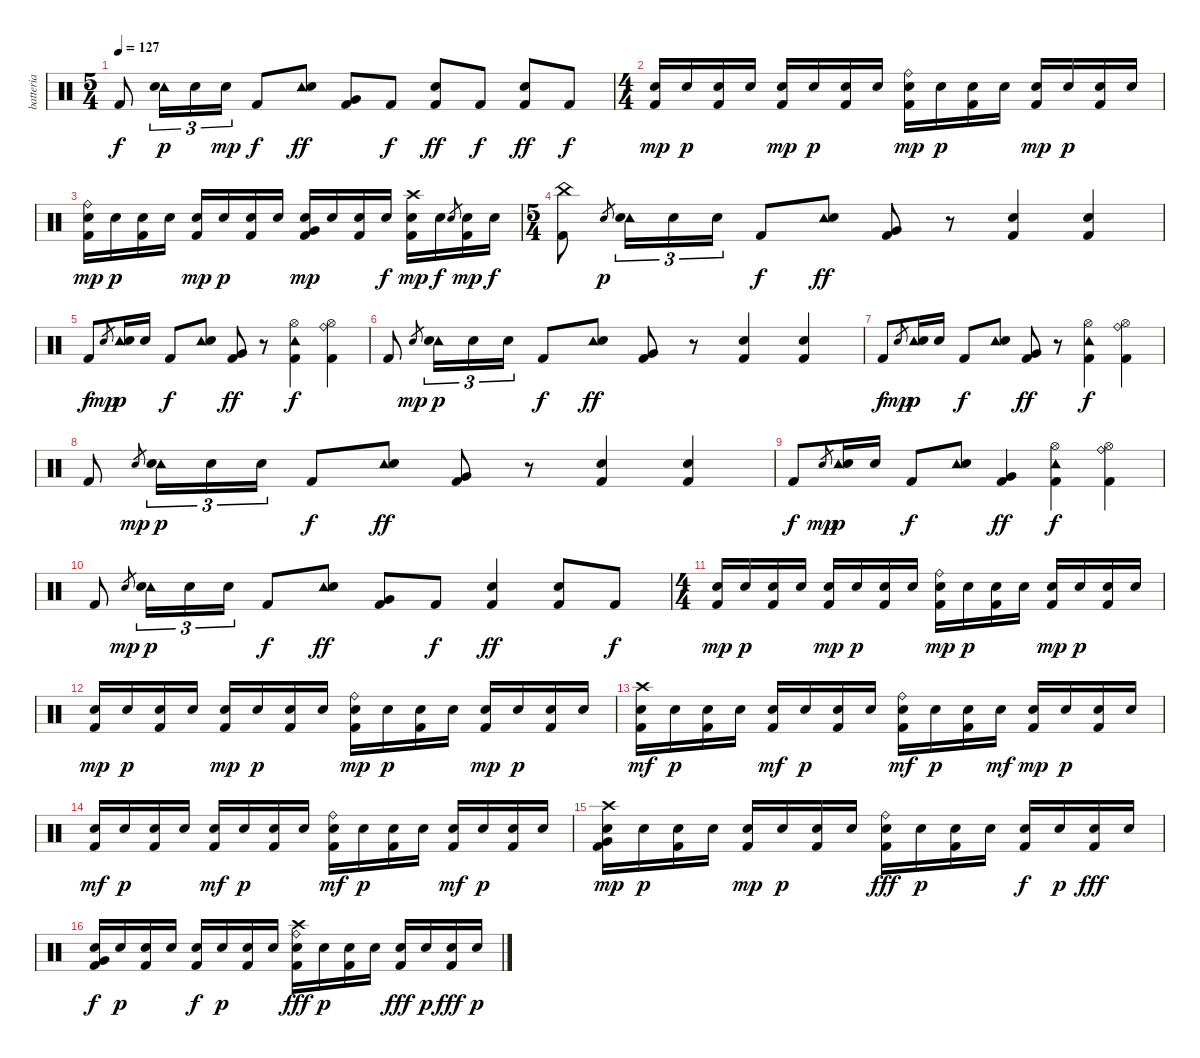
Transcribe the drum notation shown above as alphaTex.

\track ("batteria" "batteria") {instrument percussion}
\staff {score}
\articulation defaults
\ts (5 4)
\tempo 127
\clef neutral
\ks c "Kick (hit) 2".8{dy f}
("Tambourine (hit)" "Electric Snare (hit)").16{tu (3 2) dy p} "Electric Snare (hit)".16{tu (3 2)} "Electric Snare (hit)".16{tu (3 2) dy mp} "Kick (hit) 2".8{dy f} ("Tambourine (hit)" "Electric Snare (hit)").8{dy ff} ("Very Low Tom (hit)" "Kick (hit) 2").8 "Kick (hit) 2".8{dy f} ("Electric Snare (hit)" "Kick (hit) 2").8{dy ff} "Kick (hit) 2".8{dy f} ("Electric Snare (hit)" "Kick (hit) 2").8{dy ff} "Kick (hit) 2".8{dy f} |
\ts (4 4)
("Electric Snare (hit)" "Kick (hit) 2").16{dy mp} "Electric Snare (hit)".16{dy p} ("Electric Snare (hit)" "Kick (hit) 2").16 "Electric Snare (hit)".16 ("Electric Snare (hit)" "Kick (hit) 2").16{dy mp} "Electric Snare (hit)".16{dy p} ("Electric Snare (hit)" "Kick (hit) 2").16 "Electric Snare (hit)".16 ("Ride (bell)" "Electric Snare (hit)" "Kick (hit) 2").16{dy mp} "Electric Snare (hit)".16{dy p} ("Electric Snare (hit)" "Kick (hit) 2").16 "Electric Snare (hit)".16 ("Electric Snare (hit)" "Kick (hit) 2").16{dy mp} "Electric Snare (hit)".16{dy p} ("Electric Snare (hit)" "Kick (hit) 2").16 "Electric Snare (hit)".16 |
("Ride (bell)" "Electric Snare (hit)" "Kick (hit) 2").16{dy mp} "Electric Snare (hit)".16{dy p} ("Electric Snare (hit)" "Kick (hit) 2").16 "Electric Snare (hit)".16 ("Electric Snare (hit)" "Kick (hit) 2").16{dy mp} "Electric Snare (hit)".16{dy p} ("Electric Snare (hit)" "Kick (hit) 2").16 "Electric Snare (hit)".16 ("Very Low Tom (hit)" "Electric Snare (hit)" "Kick (hit) 2").16{dy mp} "Electric Snare (hit)".16 ("Electric Snare (hit)" "Kick (hit) 2").16 "Electric Snare (hit)".16{dy f} ("Crash high (hit)" "Electric Snare (hit)" "Kick (hit) 2").16{dy mp} "Electric Snare (hit)".16{dy f} "Electric Snare (hit)".8{gr} ("Electric Snare (hit)" "Kick (hit) 2").16{dy mp} "Electric Snare (hit)".16{dy f} |
\ts (5 4)
("China (hit)" "Kick (hit) 2").8 "Electric Snare (hit)".8{gr dy p} ("Tambourine (hit)" "Electric Snare (hit)").16{tu (3 2)} "Electric Snare (hit)".16{tu (3 2)} "Electric Snare (hit)".16{tu (3 2)} "Kick (hit) 2".8{dy f} ("Tambourine (hit)" "Electric Snare (hit)").8{dy ff} ("Very Low Tom (hit)" "Kick (hit) 2").8 r.8 ("Electric Snare (hit)" "Kick (hit) 2").4 ("Electric Snare (hit)" "Kick (hit) 2").4 |
"Kick (hit) 2".8{dy f} "Electric Snare (hit)".8{gr dy mp} ("Tambourine (hit)" "Electric Snare (hit)").16{dy p} "Electric Snare (hit)".16 "Kick (hit) 2".8{dy f} ("Tambourine (hit)" "Electric Snare (hit)").8 ("Very Low Tom (hit)" "Kick (hit) 2").8{dy ff} r.8 ("Hi-Hat (open)" "Tambourine (hit)" "Kick (hit) 2").4{dy f} ("Ride (bell)" "Hi-Hat (open)" "Kick (hit) 2").4 |
"Kick (hit) 2".8 "Electric Snare (hit)".8{gr dy mp} ("Tambourine (hit)" "Electric Snare (hit)").16{tu (3 2) dy p} "Electric Snare (hit)".16{tu (3 2)} "Electric Snare (hit)".16{tu (3 2)} "Kick (hit) 2".8{dy f} ("Tambourine (hit)" "Electric Snare (hit)").8{dy ff} ("Very Low Tom (hit)" "Kick (hit) 2").8 r.8 ("Electric Snare (hit)" "Kick (hit) 2").4 ("Electric Snare (hit)" "Kick (hit) 2").4 |
"Kick (hit) 2".8{dy f} "Electric Snare (hit)".8{gr dy mp} ("Tambourine (hit)" "Electric Snare (hit)").16{dy p} "Electric Snare (hit)".16 "Kick (hit) 2".8{dy f} ("Tambourine (hit)" "Electric Snare (hit)").8 ("Very Low Tom (hit)" "Kick (hit) 2").8{dy ff} r.8 ("Hi-Hat (open)" "Tambourine (hit)" "Kick (hit) 2").4{dy f} ("Ride (bell)" "Hi-Hat (open)" "Kick (hit) 2").4 |
"Kick (hit) 2".8 "Electric Snare (hit)".8{gr dy mp} ("Tambourine (hit)" "Electric Snare (hit)").16{tu (3 2) dy p} "Electric Snare (hit)".16{tu (3 2)} "Electric Snare (hit)".16{tu (3 2)} "Kick (hit) 2".8{dy f} ("Tambourine (hit)" "Electric Snare (hit)").8{dy ff} ("Very Low Tom (hit)" "Kick (hit) 2").8 r.8 ("Electric Snare (hit)" "Kick (hit) 2").4 ("Electric Snare (hit)" "Kick (hit) 2").4 |
"Kick (hit) 2".8{dy f} "Electric Snare (hit)".8{gr dy mp} ("Tambourine (hit)" "Electric Snare (hit)").16{dy p} "Electric Snare (hit)".16 "Kick (hit) 2".8{dy f} ("Tambourine (hit)" "Electric Snare (hit)").8 ("Very Low Tom (hit)" "Kick (hit) 2").4{dy ff} ("Hi-Hat (open)" "Tambourine (hit)" "Kick (hit) 2").4{dy f} ("Ride (bell)" "Hi-Hat (open)" "Kick (hit) 2").4 |
"Kick (hit) 2".8 "Electric Snare (hit)".8{gr dy mp} ("Tambourine (hit)" "Electric Snare (hit)").16{tu (3 2) dy p} "Electric Snare (hit)".16{tu (3 2)} "Electric Snare (hit)".16{tu (3 2)} "Kick (hit) 2".8{dy f} ("Tambourine (hit)" "Electric Snare (hit)").8{dy ff} ("Very Low Tom (hit)" "Kick (hit) 2").8 "Kick (hit) 2".8{dy f} ("Electric Snare (hit)" "Kick (hit) 2").4{dy ff} ("Electric Snare (hit)" "Kick (hit) 2").8 "Kick (hit) 2".8{dy f} |
\ts (4 4)
("Electric Snare (hit)" "Kick (hit) 2").16{dy mp} "Electric Snare (hit)".16{dy p} ("Electric Snare (hit)" "Kick (hit) 2").16 "Electric Snare (hit)".16 ("Electric Snare (hit)" "Kick (hit) 2").16{dy mp} "Electric Snare (hit)".16{dy p} ("Electric Snare (hit)" "Kick (hit) 2").16 "Electric Snare (hit)".16 ("Ride (bell)" "Electric Snare (hit)" "Kick (hit) 2").16{dy mp} "Electric Snare (hit)".16{dy p} ("Electric Snare (hit)" "Kick (hit) 2").16 "Electric Snare (hit)".16 ("Electric Snare (hit)" "Kick (hit) 2").16{dy mp} "Electric Snare (hit)".16{dy p} ("Electric Snare (hit)" "Kick (hit) 2").16 "Electric Snare (hit)".16 |
("Electric Snare (hit)" "Kick (hit) 2").16{dy mp} "Electric Snare (hit)".16{dy p} ("Electric Snare (hit)" "Kick (hit) 2").16 "Electric Snare (hit)".16 ("Electric Snare (hit)" "Kick (hit) 2").16{dy mp} "Electric Snare (hit)".16{dy p} ("Electric Snare (hit)" "Kick (hit) 2").16 "Electric Snare (hit)".16 ("Ride (bell)" "Electric Snare (hit)" "Kick (hit) 2").16{dy mp} "Electric Snare (hit)".16{dy p} ("Electric Snare (hit)" "Kick (hit) 2").16 "Electric Snare (hit)".16 ("Electric Snare (hit)" "Kick (hit) 2").16{dy mp} "Electric Snare (hit)".16{dy p} ("Electric Snare (hit)" "Kick (hit) 2").16 "Electric Snare (hit)".16 |
("Crash high (hit)" "Electric Snare (hit)" "Kick (hit) 2").16{dy mf} "Electric Snare (hit)".16{dy p} ("Electric Snare (hit)" "Kick (hit) 2").16 "Electric Snare (hit)".16 ("Electric Snare (hit)" "Kick (hit) 2").16{dy mf} "Electric Snare (hit)".16{dy p} ("Electric Snare (hit)" "Kick (hit) 2").16 "Electric Snare (hit)".16 ("Ride (bell)" "Electric Snare (hit)" "Kick (hit) 2").16{dy mf} "Electric Snare (hit)".16{dy p} ("Electric Snare (hit)" "Kick (hit) 2").16 "Electric Snare (hit)".16{dy mf} ("Electric Snare (hit)" "Kick (hit) 2").16{dy mp} "Electric Snare (hit)".16{dy p} ("Electric Snare (hit)" "Kick (hit) 2").16 "Electric Snare (hit)".16 |
("Electric Snare (hit)" "Kick (hit) 2").16{dy mf} "Electric Snare (hit)".16{dy p} ("Electric Snare (hit)" "Kick (hit) 2").16 "Electric Snare (hit)".16 ("Electric Snare (hit)" "Kick (hit) 2").16{dy mf} "Electric Snare (hit)".16{dy p} ("Electric Snare (hit)" "Kick (hit) 2").16 "Electric Snare (hit)".16 ("Ride (bell)" "Electric Snare (hit)" "Kick (hit) 2").16{dy mf} "Electric Snare (hit)".16{dy p} ("Electric Snare (hit)" "Kick (hit) 2").16 "Electric Snare (hit)".16 ("Electric Snare (hit)" "Kick (hit) 2").16{dy mf} "Electric Snare (hit)".16{dy p} ("Electric Snare (hit)" "Kick (hit) 2").16 "Electric Snare (hit)".16 |
("Crash high (hit)" "Electric Snare (hit)" "Very Low Tom (hit)" "Kick (hit) 2").16{dy mp} "Electric Snare (hit)".16{dy p} ("Electric Snare (hit)" "Kick (hit) 2").16 "Electric Snare (hit)".16 ("Electric Snare (hit)" "Kick (hit) 2").16{dy mp} "Electric Snare (hit)".16{dy p} ("Electric Snare (hit)" "Kick (hit) 2").16 "Electric Snare (hit)".16 ("Ride (bell)" "Electric Snare (hit)" "Kick (hit) 2").16{dy fff} "Electric Snare (hit)".16{dy p} ("Electric Snare (hit)" "Kick (hit) 2").16 "Electric Snare (hit)".16 ("Electric Snare (hit)" "Kick (hit) 2").16{dy f} "Electric Snare (hit)".16{dy p} ("Electric Snare (hit)" "Kick (hit) 2").16{dy fff} "Electric Snare (hit)".16 |
("Electric Snare (hit)" "Very Low Tom (hit)" "Kick (hit) 2").16{dy f} "Electric Snare (hit)".16{dy p} ("Electric Snare (hit)" "Kick (hit) 2").16 "Electric Snare (hit)".16 ("Electric Snare (hit)" "Kick (hit) 2").16{dy f} "Electric Snare (hit)".16{dy p} ("Electric Snare (hit)" "Kick (hit) 2").16 "Electric Snare (hit)".16 ("Crash high (hit)" "Ride (bell)" "Electric Snare (hit)" "Kick (hit) 2").16{dy fff} "Electric Snare (hit)".16{dy p} ("Electric Snare (hit)" "Kick (hit) 2").16 "Electric Snare (hit)".16 ("Electric Snare (hit)" "Kick (hit) 2").16{dy fff} "Electric Snare (hit)".16{dy p} ("Electric Snare (hit)" "Kick (hit) 2").16{dy fff} "Electric Snare (hit)".16{dy p}
